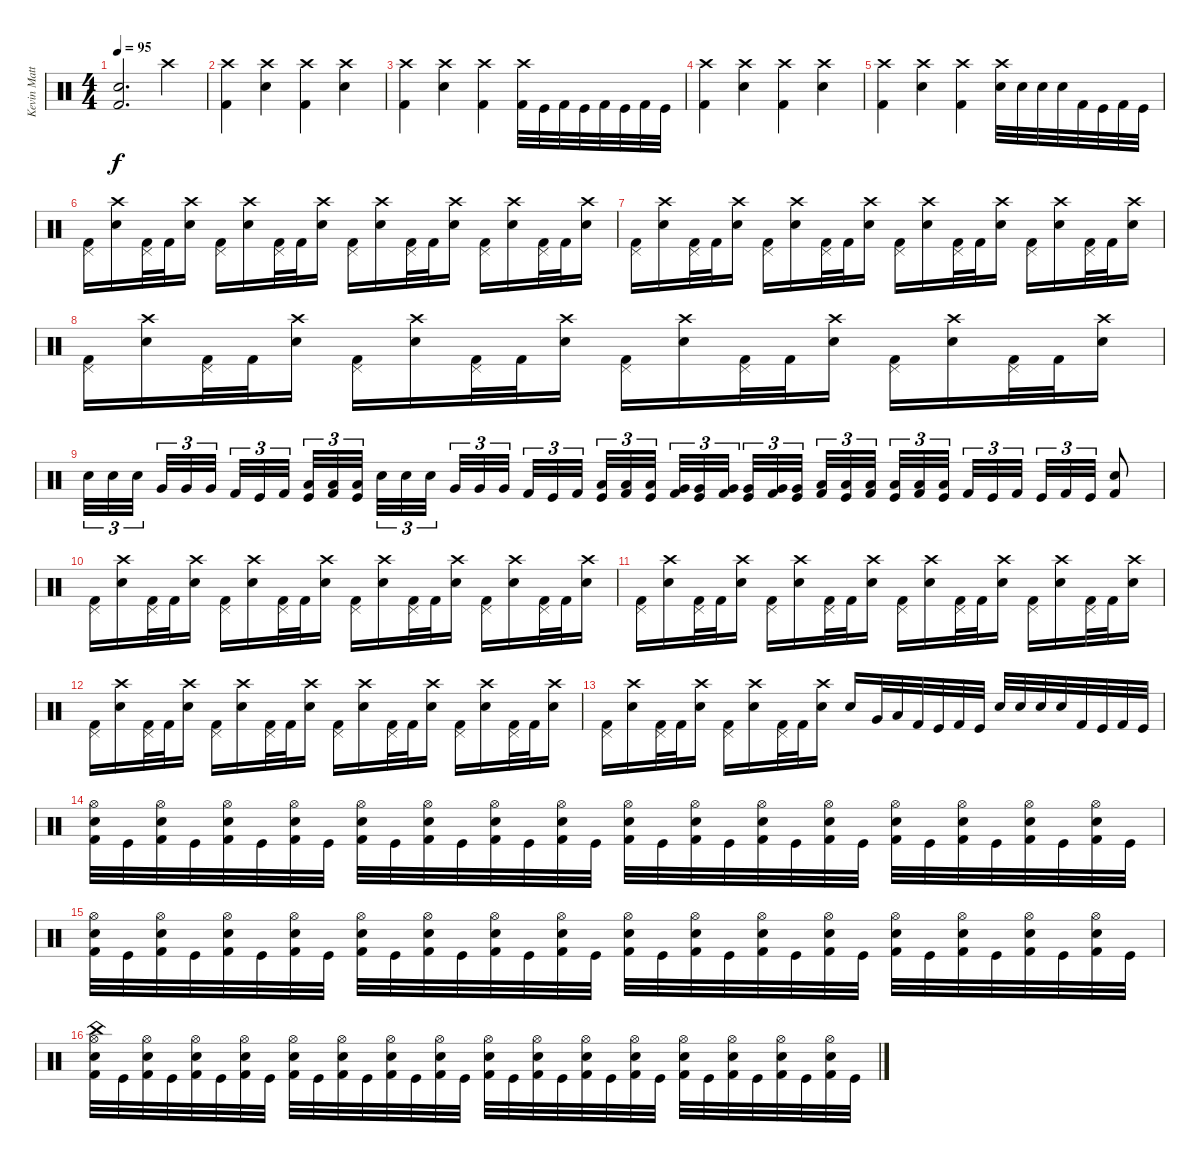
\track ("Kevin Matthews (Drums)" "Kevin Matt") {instrument percussion}
\staff {score}
\articulation defaults
\ts (4 4)
\tempo 95
\clef neutral
\ks c
("Electric Snare (hit)" "Kick (hit) 2").2{d dy f} "Crash high (hit)".4 |
("Crash high (hit)" "Kick (hit) 2").4 ("Crash high (hit)" "Electric Snare (hit)").4 ("Crash high (hit)" "Kick (hit) 2").4 ("Crash high (hit)" "Electric Snare (hit)").4 |
("Crash high (hit)" "Kick (hit) 2").4 ("Crash high (hit)" "Electric Snare (hit)").4 ("Crash high (hit)" "Kick (hit) 2").4 ("Crash high (hit)" "Kick (hit) 2").32 "Kick (hit)".32 "Kick (hit) 2".32 "Kick (hit)".32 "Kick (hit) 2".32 "Kick (hit)".32 "Kick (hit) 2".32 "Kick (hit)".32 |
("Crash high (hit)" "Kick (hit) 2").4 ("Crash high (hit)" "Electric Snare (hit)").4 ("Crash high (hit)" "Kick (hit) 2").4 ("Crash high (hit)" "Electric Snare (hit)").4 |
("Crash high (hit)" "Kick (hit) 2").4 ("Crash high (hit)" "Electric Snare (hit)").4 ("Crash high (hit)" "Kick (hit) 2").4 ("Crash high (hit)" "Electric Snare (hit)").32 "Electric Snare (hit)".32 "Electric Snare (hit)".32 "Electric Snare (hit)".32 "Kick (hit) 2".32 "Kick (hit)".32 "Kick (hit) 2".32 "Kick (hit)".32 |
("Pedal Hi-Hat (hit)" "Kick (hit) 2").16 ("Crash high (hit)" "Electric Snare (hit)").16 ("Pedal Hi-Hat (hit)" "Kick (hit) 2").32 "Kick (hit) 2".32 ("Crash high (hit)" "Electric Snare (hit)").16 ("Pedal Hi-Hat (hit)" "Kick (hit) 2").16 ("Crash high (hit)" "Electric Snare (hit)").16 ("Pedal Hi-Hat (hit)" "Kick (hit) 2").32 "Kick (hit) 2".32 ("Crash high (hit)" "Electric Snare (hit)").16 ("Pedal Hi-Hat (hit)" "Kick (hit) 2").16 ("Crash high (hit)" "Electric Snare (hit)").16 ("Pedal Hi-Hat (hit)" "Kick (hit) 2").32 "Kick (hit) 2".32 ("Crash high (hit)" "Electric Snare (hit)").16 ("Pedal Hi-Hat (hit)" "Kick (hit) 2").16 ("Crash high (hit)" "Electric Snare (hit)").16 ("Pedal Hi-Hat (hit)" "Kick (hit) 2").32 "Kick (hit) 2".32 ("Crash high (hit)" "Electric Snare (hit)").16 |
("Pedal Hi-Hat (hit)" "Kick (hit) 2").16 ("Crash high (hit)" "Electric Snare (hit)").16 ("Pedal Hi-Hat (hit)" "Kick (hit) 2").32 "Kick (hit) 2".32 ("Crash high (hit)" "Electric Snare (hit)").16 ("Pedal Hi-Hat (hit)" "Kick (hit) 2").16 ("Crash high (hit)" "Electric Snare (hit)").16 ("Pedal Hi-Hat (hit)" "Kick (hit) 2").32 "Kick (hit) 2".32 ("Crash high (hit)" "Electric Snare (hit)").16 ("Pedal Hi-Hat (hit)" "Kick (hit) 2").16 ("Crash high (hit)" "Electric Snare (hit)").16 ("Pedal Hi-Hat (hit)" "Kick (hit) 2").32 "Kick (hit) 2".32 ("Crash high (hit)" "Electric Snare (hit)").16 ("Pedal Hi-Hat (hit)" "Kick (hit) 2").16 ("Crash high (hit)" "Electric Snare (hit)").16 ("Pedal Hi-Hat (hit)" "Kick (hit) 2").32 "Kick (hit) 2".32 ("Crash high (hit)" "Electric Snare (hit)").16 |
("Pedal Hi-Hat (hit)" "Kick (hit) 2").16 ("Crash high (hit)" "Electric Snare (hit)").16 ("Pedal Hi-Hat (hit)" "Kick (hit) 2").32 "Kick (hit) 2".32 ("Crash high (hit)" "Electric Snare (hit)").16 ("Pedal Hi-Hat (hit)" "Kick (hit) 2").16 ("Crash high (hit)" "Electric Snare (hit)").16 ("Pedal Hi-Hat (hit)" "Kick (hit) 2").32 "Kick (hit) 2".32 ("Crash high (hit)" "Electric Snare (hit)").16 ("Pedal Hi-Hat (hit)" "Kick (hit) 2").16 ("Crash high (hit)" "Electric Snare (hit)").16 ("Pedal Hi-Hat (hit)" "Kick (hit) 2").32 "Kick (hit) 2".32 ("Crash high (hit)" "Electric Snare (hit)").16 ("Pedal Hi-Hat (hit)" "Kick (hit) 2").16 ("Crash high (hit)" "Electric Snare (hit)").16 ("Pedal Hi-Hat (hit)" "Kick (hit) 2").32 "Kick (hit) 2".32 ("Crash high (hit)" "Electric Snare (hit)").16 |
"Electric Snare (hit)".32{tu (3 2)} "Electric Snare (hit)".32{tu (3 2)} "Electric Snare (hit)".32{tu (3 2) beam splitsecondary} "Very Low Tom (hit)".32{tu (3 2)} "Very Low Tom (hit)".32{tu (3 2)} "Very Low Tom (hit)".32{tu (3 2) beam splitsecondary} "Kick (hit) 2".32{tu (3 2)} "Kick (hit)".32{tu (3 2)} "Kick (hit) 2".32{tu (3 2) beam splitsecondary} ("Low Floor Tom (hit)" "Kick (hit)").32{tu (3 2)} ("Low Floor Tom (hit)" "Kick (hit) 2").32{tu (3 2)} ("Low Floor Tom (hit)" "Kick (hit)").32{tu (3 2)} "Electric Snare (hit)".32{tu (3 2)} "Electric Snare (hit)".32{tu (3 2)} "Electric Snare (hit)".32{tu (3 2) beam splitsecondary} "Very Low Tom (hit)".32{tu (3 2)} "Very Low Tom (hit)".32{tu (3 2)} "Very Low Tom (hit)".32{tu (3 2) beam splitsecondary} "Kick (hit) 2".32{tu (3 2)} "Kick (hit)".32{tu (3 2)} "Kick (hit) 2".32{tu (3 2) beam splitsecondary} ("Low Floor Tom (hit)" "Kick (hit)").32{tu (3 2)} ("Low Floor Tom (hit)" "Kick (hit) 2").32{tu (3 2)} ("Low Floor Tom (hit)" "Kick (hit)").32{tu (3 2)} ("Very Low Tom (hit)" "Kick (hit) 2").32{tu (3 2)} ("Very Low Tom (hit)" "Kick (hit)").32{tu (3 2)} ("Very Low Tom (hit)" "Kick (hit) 2").32{tu (3 2) beam splitsecondary} ("Very Low Tom (hit)" "Kick (hit)").32{tu (3 2)} ("Very Low Tom (hit)" "Kick (hit) 2").32{tu (3 2)} ("Very Low Tom (hit)" "Kick (hit)").32{tu (3 2) beam splitsecondary} ("Low Floor Tom (hit)" "Kick (hit) 2").32{tu (3 2)} ("Low Floor Tom (hit)" "Kick (hit)").32{tu (3 2)} ("Low Floor Tom (hit)" "Kick (hit) 2").32{tu (3 2) beam splitsecondary} ("Low Floor Tom (hit)" "Kick (hit)").32{tu (3 2)} ("Low Floor Tom (hit)" "Kick (hit) 2").32{tu (3 2)} ("Low Floor Tom (hit)" "Kick (hit)").32{tu (3 2)} "Kick (hit) 2".32{tu (3 2)} "Kick (hit)".32{tu (3 2)} "Kick (hit) 2".32{tu (3 2) beam splitsecondary} "Kick (hit)".32{tu (3 2)} "Kick (hit) 2".32{tu (3 2)} "Kick (hit)".32{tu (3 2)} ("Electric Snare (hit)" "Kick (hit) 2").8 |
("Pedal Hi-Hat (hit)" "Kick (hit) 2").16 ("Crash high (hit)" "Electric Snare (hit)").16 ("Pedal Hi-Hat (hit)" "Kick (hit) 2").32 "Kick (hit) 2".32 ("Crash high (hit)" "Electric Snare (hit)").16 ("Pedal Hi-Hat (hit)" "Kick (hit) 2").16 ("Crash high (hit)" "Electric Snare (hit)").16 ("Pedal Hi-Hat (hit)" "Kick (hit) 2").32 "Kick (hit) 2".32 ("Crash high (hit)" "Electric Snare (hit)").16 ("Pedal Hi-Hat (hit)" "Kick (hit) 2").16 ("Crash high (hit)" "Electric Snare (hit)").16 ("Pedal Hi-Hat (hit)" "Kick (hit) 2").32 "Kick (hit) 2".32 ("Crash high (hit)" "Electric Snare (hit)").16 ("Pedal Hi-Hat (hit)" "Kick (hit) 2").16 ("Crash high (hit)" "Electric Snare (hit)").16 ("Pedal Hi-Hat (hit)" "Kick (hit) 2").32 "Kick (hit) 2".32 ("Crash high (hit)" "Electric Snare (hit)").16 |
("Pedal Hi-Hat (hit)" "Kick (hit) 2").16 ("Crash high (hit)" "Electric Snare (hit)").16 ("Pedal Hi-Hat (hit)" "Kick (hit) 2").32 "Kick (hit) 2".32 ("Crash high (hit)" "Electric Snare (hit)").16 ("Pedal Hi-Hat (hit)" "Kick (hit) 2").16 ("Crash high (hit)" "Electric Snare (hit)").16 ("Pedal Hi-Hat (hit)" "Kick (hit) 2").32 "Kick (hit) 2".32 ("Crash high (hit)" "Electric Snare (hit)").16 ("Pedal Hi-Hat (hit)" "Kick (hit) 2").16 ("Crash high (hit)" "Electric Snare (hit)").16 ("Pedal Hi-Hat (hit)" "Kick (hit) 2").32 "Kick (hit) 2".32 ("Crash high (hit)" "Electric Snare (hit)").16 ("Pedal Hi-Hat (hit)" "Kick (hit) 2").16 ("Crash high (hit)" "Electric Snare (hit)").16 ("Pedal Hi-Hat (hit)" "Kick (hit) 2").32 "Kick (hit) 2".32 ("Crash high (hit)" "Electric Snare (hit)").16 |
("Pedal Hi-Hat (hit)" "Kick (hit) 2").16 ("Crash high (hit)" "Electric Snare (hit)").16 ("Pedal Hi-Hat (hit)" "Kick (hit) 2").32 "Kick (hit) 2".32 ("Crash high (hit)" "Electric Snare (hit)").16 ("Pedal Hi-Hat (hit)" "Kick (hit) 2").16 ("Crash high (hit)" "Electric Snare (hit)").16 ("Pedal Hi-Hat (hit)" "Kick (hit) 2").32 "Kick (hit) 2".32 ("Crash high (hit)" "Electric Snare (hit)").16 ("Pedal Hi-Hat (hit)" "Kick (hit) 2").16 ("Crash high (hit)" "Electric Snare (hit)").16 ("Pedal Hi-Hat (hit)" "Kick (hit) 2").32 "Kick (hit) 2".32 ("Crash high (hit)" "Electric Snare (hit)").16 ("Pedal Hi-Hat (hit)" "Kick (hit) 2").16 ("Crash high (hit)" "Electric Snare (hit)").16 ("Pedal Hi-Hat (hit)" "Kick (hit) 2").32 "Kick (hit) 2".32 ("Crash high (hit)" "Electric Snare (hit)").16 |
("Pedal Hi-Hat (hit)" "Kick (hit) 2").16 ("Crash high (hit)" "Electric Snare (hit)").16 ("Pedal Hi-Hat (hit)" "Kick (hit) 2").32 "Kick (hit) 2".32 ("Crash high (hit)" "Electric Snare (hit)").16 ("Pedal Hi-Hat (hit)" "Kick (hit) 2").16 ("Crash high (hit)" "Electric Snare (hit)").16 ("Pedal Hi-Hat (hit)" "Kick (hit) 2").32 "Kick (hit) 2".32 ("Crash high (hit)" "Electric Snare (hit)").16 "Electric Snare (hit)".16 "Very Low Tom (hit)".32 "Low Floor Tom (hit)".32 "Kick (hit) 2".32 "Kick (hit)".32 "Kick (hit) 2".32 "Kick (hit)".32 "Electric Snare (hit)".32 "Electric Snare (hit)".32 "Electric Snare (hit)".32 "Electric Snare (hit)".32 "Kick (hit) 2".32 "Kick (hit)".32 "Kick (hit) 2".32 "Kick (hit)".32 |
("Hi-Hat (open)" "Electric Snare (hit)" "Kick (hit) 2").32 "Kick (hit)".32 ("Hi-Hat (open)" "Electric Snare (hit)" "Kick (hit) 2").32 "Kick (hit)".32 ("Hi-Hat (open)" "Electric Snare (hit)" "Kick (hit) 2").32 "Kick (hit)".32 ("Hi-Hat (open)" "Electric Snare (hit)" "Kick (hit) 2").32 "Kick (hit)".32 ("Hi-Hat (open)" "Electric Snare (hit)" "Kick (hit) 2").32 "Kick (hit)".32 ("Hi-Hat (open)" "Electric Snare (hit)" "Kick (hit) 2").32 "Kick (hit)".32 ("Hi-Hat (open)" "Electric Snare (hit)" "Kick (hit) 2").32 "Kick (hit)".32 ("Hi-Hat (open)" "Electric Snare (hit)" "Kick (hit) 2").32 "Kick (hit)".32 ("Hi-Hat (open)" "Electric Snare (hit)" "Kick (hit) 2").32 "Kick (hit)".32 ("Hi-Hat (open)" "Electric Snare (hit)" "Kick (hit) 2").32 "Kick (hit)".32 ("Hi-Hat (open)" "Electric Snare (hit)" "Kick (hit) 2").32 "Kick (hit)".32 ("Hi-Hat (open)" "Electric Snare (hit)" "Kick (hit) 2").32 "Kick (hit)".32 ("Hi-Hat (open)" "Electric Snare (hit)" "Kick (hit) 2").32 "Kick (hit)".32 ("Hi-Hat (open)" "Electric Snare (hit)" "Kick (hit) 2").32 "Kick (hit)".32 ("Hi-Hat (open)" "Electric Snare (hit)" "Kick (hit) 2").32 "Kick (hit)".32 ("Hi-Hat (open)" "Electric Snare (hit)" "Kick (hit) 2").32 "Kick (hit)".32 |
("Hi-Hat (open)" "Electric Snare (hit)" "Kick (hit) 2").32 "Kick (hit)".32 ("Hi-Hat (open)" "Electric Snare (hit)" "Kick (hit) 2").32 "Kick (hit)".32 ("Hi-Hat (open)" "Electric Snare (hit)" "Kick (hit) 2").32 "Kick (hit)".32 ("Hi-Hat (open)" "Electric Snare (hit)" "Kick (hit) 2").32 "Kick (hit)".32 ("Hi-Hat (open)" "Electric Snare (hit)" "Kick (hit) 2").32 "Kick (hit)".32 ("Hi-Hat (open)" "Electric Snare (hit)" "Kick (hit) 2").32 "Kick (hit)".32 ("Hi-Hat (open)" "Electric Snare (hit)" "Kick (hit) 2").32 "Kick (hit)".32 ("Hi-Hat (open)" "Electric Snare (hit)" "Kick (hit) 2").32 "Kick (hit)".32 ("Hi-Hat (open)" "Electric Snare (hit)" "Kick (hit) 2").32 "Kick (hit)".32 ("Hi-Hat (open)" "Electric Snare (hit)" "Kick (hit) 2").32 "Kick (hit)".32 ("Hi-Hat (open)" "Electric Snare (hit)" "Kick (hit) 2").32 "Kick (hit)".32 ("Hi-Hat (open)" "Electric Snare (hit)" "Kick (hit) 2").32 "Kick (hit)".32 ("Hi-Hat (open)" "Electric Snare (hit)" "Kick (hit) 2").32 "Kick (hit)".32 ("Hi-Hat (open)" "Electric Snare (hit)" "Kick (hit) 2").32 "Kick (hit)".32 ("Hi-Hat (open)" "Electric Snare (hit)" "Kick (hit) 2").32 "Kick (hit)".32 ("Hi-Hat (open)" "Electric Snare (hit)" "Kick (hit) 2").32 "Kick (hit)".32 |
("Hi-Hat (open)" "China (hit)" "Electric Snare (hit)" "Kick (hit) 2").32 "Kick (hit)".32 ("Hi-Hat (open)" "Electric Snare (hit)" "Kick (hit) 2").32 "Kick (hit)".32 ("Hi-Hat (open)" "Electric Snare (hit)" "Kick (hit) 2").32 "Kick (hit)".32 ("Hi-Hat (open)" "Electric Snare (hit)" "Kick (hit) 2").32 "Kick (hit)".32 ("Hi-Hat (open)" "Electric Snare (hit)" "Kick (hit) 2").32 "Kick (hit)".32 ("Hi-Hat (open)" "Electric Snare (hit)" "Kick (hit) 2").32 "Kick (hit)".32 ("Hi-Hat (open)" "Electric Snare (hit)" "Kick (hit) 2").32 "Kick (hit)".32 ("Hi-Hat (open)" "Electric Snare (hit)" "Kick (hit) 2").32 "Kick (hit)".32 ("Hi-Hat (open)" "Electric Snare (hit)" "Kick (hit) 2").32 "Kick (hit)".32 ("Hi-Hat (open)" "Electric Snare (hit)" "Kick (hit) 2").32 "Kick (hit)".32 ("Hi-Hat (open)" "Electric Snare (hit)" "Kick (hit) 2").32 "Kick (hit)".32 ("Hi-Hat (open)" "Electric Snare (hit)" "Kick (hit) 2").32 "Kick (hit)".32 ("Hi-Hat (open)" "Electric Snare (hit)" "Kick (hit) 2").32 "Kick (hit)".32 ("Hi-Hat (open)" "Electric Snare (hit)" "Kick (hit) 2").32 "Kick (hit)".32 ("Hi-Hat (open)" "Electric Snare (hit)" "Kick (hit) 2").32 "Kick (hit)".32 ("Hi-Hat (open)" "Electric Snare (hit)" "Kick (hit) 2").32 "Kick (hit)".32
